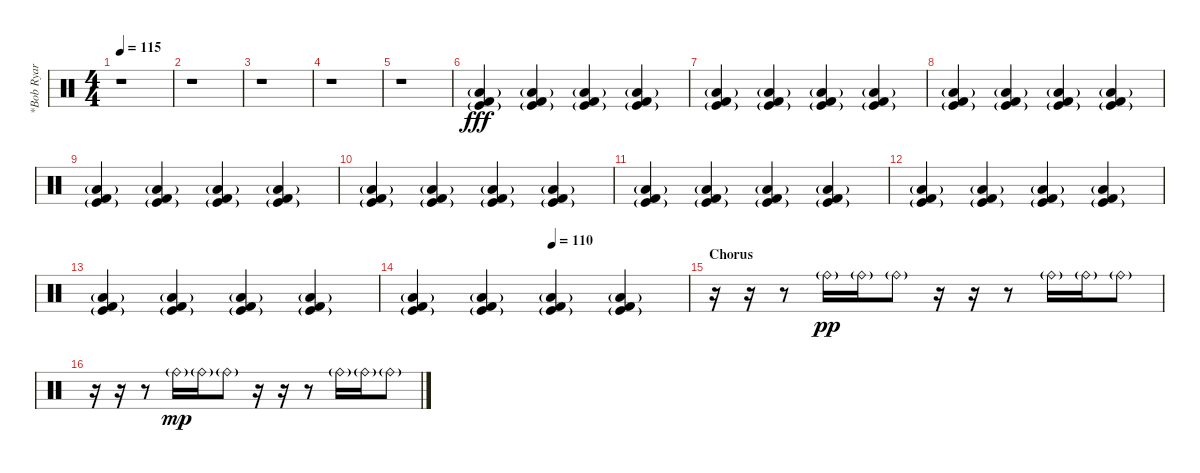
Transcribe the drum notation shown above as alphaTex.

\track ("*Bob Ryar (Drums)" "*Bob Ryar ") {instrument percussion}
\staff {score}
\articulation defaults
\ts (4 4)
\tempo 115
\clef neutral
\ks c
r.1{dy mp} |
r.1 |
r.1 |
r.1 |
r.1 |
("Low Floor Tom (hit)"{g} "Kick (hit)"{g} "Kick (hit) 2").4{dy fff} ("Low Floor Tom (hit)"{g} "Kick (hit)"{g} "Kick (hit) 2").4 ("Low Floor Tom (hit)"{g} "Kick (hit)"{g} "Kick (hit) 2").4 ("Low Floor Tom (hit)"{g} "Kick (hit)"{g} "Kick (hit) 2").4 |
("Low Floor Tom (hit)"{g} "Kick (hit)"{g} "Kick (hit) 2").4 ("Low Floor Tom (hit)"{g} "Kick (hit)"{g} "Kick (hit) 2").4 ("Low Floor Tom (hit)"{g} "Kick (hit)"{g} "Kick (hit) 2").4 ("Low Floor Tom (hit)"{g} "Kick (hit)"{g} "Kick (hit) 2").4 |
("Low Floor Tom (hit)"{g} "Kick (hit)"{g} "Kick (hit) 2").4 ("Low Floor Tom (hit)"{g} "Kick (hit)"{g} "Kick (hit) 2").4 ("Low Floor Tom (hit)"{g} "Kick (hit)"{g} "Kick (hit) 2").4 ("Low Floor Tom (hit)"{g} "Kick (hit)"{g} "Kick (hit) 2").4 |
("Low Floor Tom (hit)"{g} "Kick (hit)"{g} "Kick (hit) 2").4 ("Low Floor Tom (hit)"{g} "Kick (hit)"{g} "Kick (hit) 2").4 ("Low Floor Tom (hit)"{g} "Kick (hit)"{g} "Kick (hit) 2").4 ("Low Floor Tom (hit)"{g} "Kick (hit)"{g} "Kick (hit) 2").4 |
("Low Floor Tom (hit)"{g} "Kick (hit)"{g} "Kick (hit) 2").4 ("Low Floor Tom (hit)"{g} "Kick (hit)"{g} "Kick (hit) 2").4 ("Low Floor Tom (hit)"{g} "Kick (hit)"{g} "Kick (hit) 2").4 ("Low Floor Tom (hit)"{g} "Kick (hit)"{g} "Kick (hit) 2").4 |
("Low Floor Tom (hit)"{g} "Kick (hit)"{g} "Kick (hit) 2").4 ("Low Floor Tom (hit)"{g} "Kick (hit)"{g} "Kick (hit) 2").4 ("Low Floor Tom (hit)"{g} "Kick (hit)"{g} "Kick (hit) 2").4 ("Low Floor Tom (hit)"{g} "Kick (hit)"{g} "Kick (hit) 2").4 |
("Low Floor Tom (hit)"{g} "Kick (hit)"{g} "Kick (hit) 2").4 ("Low Floor Tom (hit)"{g} "Kick (hit)"{g} "Kick (hit) 2").4 ("Low Floor Tom (hit)"{g} "Kick (hit)"{g} "Kick (hit) 2").4 ("Low Floor Tom (hit)"{g} "Kick (hit)"{g} "Kick (hit) 2").4 |
("Low Floor Tom (hit)"{g} "Kick (hit)"{g} "Kick (hit) 2").4 ("Low Floor Tom (hit)"{g} "Kick (hit)"{g} "Kick (hit) 2").4 ("Low Floor Tom (hit)"{g} "Kick (hit)"{g} "Kick (hit) 2").4 ("Low Floor Tom (hit)"{g} "Kick (hit)"{g} "Kick (hit) 2").4 |
\tempo (110 0.5)
("Low Floor Tom (hit)"{g} "Kick (hit)"{g} "Kick (hit) 2").4 ("Low Floor Tom (hit)"{g} "Kick (hit)"{g} "Kick (hit) 2").4 ("Low Floor Tom (hit)"{g} "Kick (hit)"{g} "Kick (hit) 2").4 ("Low Floor Tom (hit)"{g} "Kick (hit)"{g} "Kick (hit) 2").4 |
\section ("" "Chorus")
r.16 r.16 r.8 "Ride (bell)"{g}.16{dy pp} "Ride (bell)"{g}.16 "Ride (bell)"{g}.8 r.16 r.16 r.8 "Ride (bell)"{g}.16 "Ride (bell)"{g}.16 "Ride (bell)"{g}.8 |
r.16 r.16 r.8 "Ride (bell)"{g}.16{dy mp} "Ride (bell)"{g}.16 "Ride (bell)"{g}.8 r.16 r.16 r.8 "Ride (bell)"{g}.16 "Ride (bell)"{g}.16 "Ride (bell)"{g}.8
